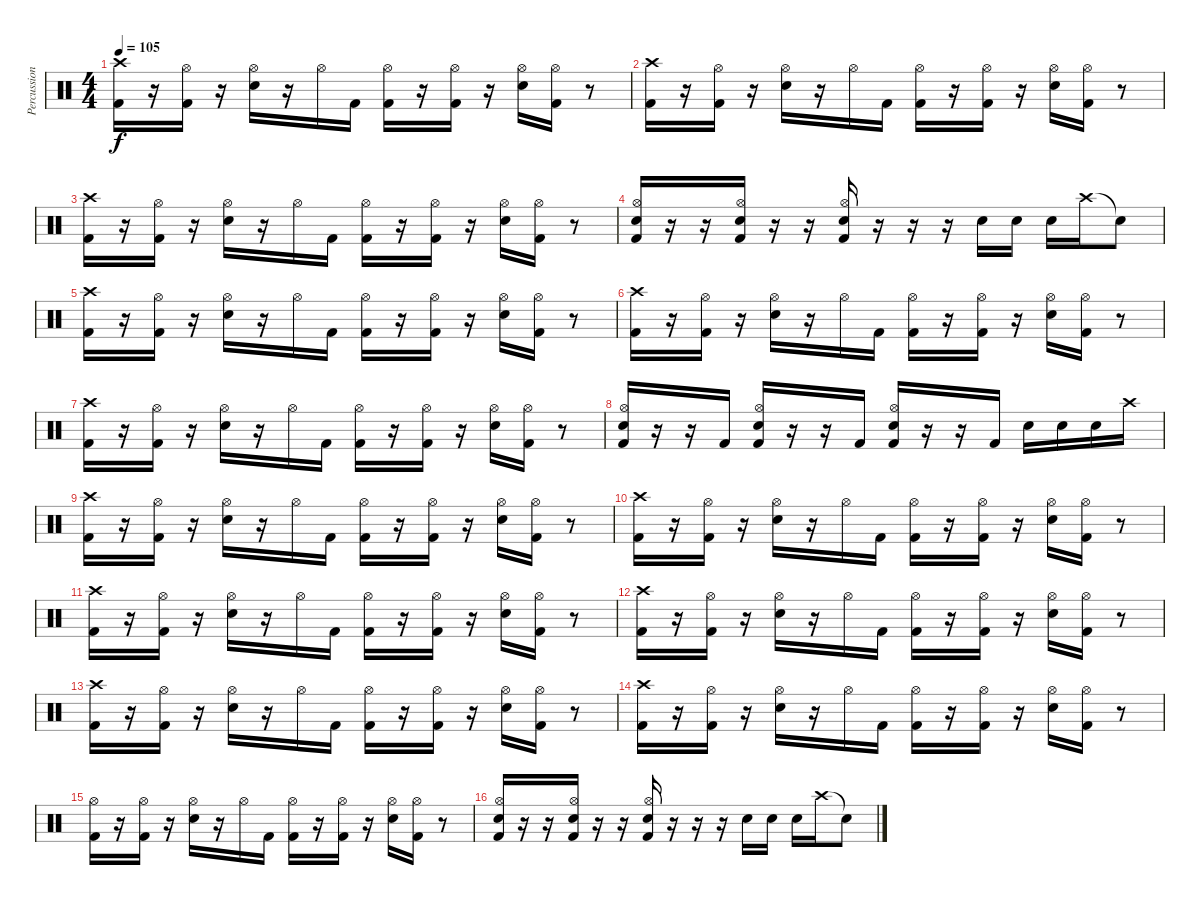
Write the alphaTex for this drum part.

\track ("Percussions" "Percussion") {instrument percussion}
\staff {score}
\articulation defaults
\ts (4 4)
\tempo 105
\clef neutral
\ks c
("Crash high (hit)" "Kick (hit) 2").16{dy f} r.16 ("Hi-Hat (open)" "Kick (hit) 2").16 r.16 ("Hi-Hat (open)" "Snare (hit) 2").16 r.16 "Hi-Hat (open)".16 "Kick (hit) 2".16 ("Kick (hit) 2" "Hi-Hat (open)").16 r.16 ("Kick (hit) 2" "Hi-Hat (open)").16 r.16 ("Hi-Hat (open)" "Snare (hit) 2").16 ("Kick (hit) 2" "Hi-Hat (open)").16 r.8 |
("Crash high (hit)" "Kick (hit) 2").16 r.16 ("Hi-Hat (open)" "Kick (hit) 2").16 r.16 ("Hi-Hat (open)" "Snare (hit) 2").16 r.16 "Hi-Hat (open)".16 "Kick (hit) 2".16 ("Kick (hit) 2" "Hi-Hat (open)").16 r.16 ("Kick (hit) 2" "Hi-Hat (open)").16 r.16 ("Hi-Hat (open)" "Snare (hit) 2").16 ("Kick (hit) 2" "Hi-Hat (open)").16 r.8 |
("Crash high (hit)" "Kick (hit) 2").16 r.16 ("Hi-Hat (open)" "Kick (hit) 2").16 r.16 ("Hi-Hat (open)" "Snare (hit) 2").16 r.16 "Hi-Hat (open)".16 "Kick (hit) 2".16 ("Kick (hit) 2" "Hi-Hat (open)").16 r.16 ("Kick (hit) 2" "Hi-Hat (open)").16 r.16 ("Hi-Hat (open)" "Snare (hit) 2").16 ("Kick (hit) 2" "Hi-Hat (open)").16 r.8 |
("Kick (hit) 2" "Snare (hit) 2" "Hi-Hat (open)").16 r.16 r.16 ("Kick (hit) 2" "Snare (hit) 2" "Hi-Hat (open)").16 r.16 r.16 ("Kick (hit) 2" "Snare (hit) 2" "Hi-Hat (open)").16 r.16 r.16 r.16 "Snare (hit) 2".16 "Snare (hit) 2".16 "Snare (hit) 2".16 "Crash high (hit)".16 "Snare (hit)"{t}.8 |
("Crash high (hit)" "Kick (hit) 2").16 r.16 ("Hi-Hat (open)" "Kick (hit) 2").16 r.16 ("Hi-Hat (open)" "Snare (hit) 2").16 r.16 "Hi-Hat (open)".16 "Kick (hit) 2".16 ("Kick (hit) 2" "Hi-Hat (open)").16 r.16 ("Kick (hit) 2" "Hi-Hat (open)").16 r.16 ("Hi-Hat (open)" "Snare (hit) 2").16 ("Kick (hit) 2" "Hi-Hat (open)").16 r.8 |
("Crash high (hit)" "Kick (hit) 2").16 r.16 ("Hi-Hat (open)" "Kick (hit) 2").16 r.16 ("Hi-Hat (open)" "Snare (hit) 2").16 r.16 "Hi-Hat (open)".16 "Kick (hit) 2".16 ("Kick (hit) 2" "Hi-Hat (open)").16 r.16 ("Kick (hit) 2" "Hi-Hat (open)").16 r.16 ("Hi-Hat (open)" "Snare (hit) 2").16 ("Kick (hit) 2" "Hi-Hat (open)").16 r.8 |
("Crash high (hit)" "Kick (hit) 2").16 r.16 ("Hi-Hat (open)" "Kick (hit) 2").16 r.16 ("Hi-Hat (open)" "Snare (hit) 2").16 r.16 "Hi-Hat (open)".16 "Kick (hit) 2".16 ("Kick (hit) 2" "Hi-Hat (open)").16 r.16 ("Kick (hit) 2" "Hi-Hat (open)").16 r.16 ("Hi-Hat (open)" "Snare (hit) 2").16 ("Kick (hit) 2" "Hi-Hat (open)").16 r.8 |
("Kick (hit) 2" "Snare (hit) 2" "Hi-Hat (open)").16 r.16 r.16 "Kick (hit) 2".16 ("Kick (hit) 2" "Snare (hit) 2" "Hi-Hat (open)").16 r.16 r.16 "Kick (hit) 2".16 ("Kick (hit) 2" "Snare (hit) 2" "Hi-Hat (open)").16 r.16 r.16 "Kick (hit) 2".16 "Snare (hit) 2".16 "Snare (hit) 2".16 "Snare (hit) 2".16 "Crash high (hit)".16 |
("Crash high (hit)" "Kick (hit) 2").16 r.16 ("Hi-Hat (open)" "Kick (hit) 2").16 r.16 ("Hi-Hat (open)" "Snare (hit) 2").16 r.16 "Hi-Hat (open)".16 "Kick (hit) 2".16 ("Kick (hit) 2" "Hi-Hat (open)").16 r.16 ("Kick (hit) 2" "Hi-Hat (open)").16 r.16 ("Hi-Hat (open)" "Snare (hit) 2").16 ("Kick (hit) 2" "Hi-Hat (open)").16 r.8 |
("Crash high (hit)" "Kick (hit) 2").16 r.16 ("Hi-Hat (open)" "Kick (hit) 2").16 r.16 ("Hi-Hat (open)" "Snare (hit) 2").16 r.16 "Hi-Hat (open)".16 "Kick (hit) 2".16 ("Kick (hit) 2" "Hi-Hat (open)").16 r.16 ("Kick (hit) 2" "Hi-Hat (open)").16 r.16 ("Hi-Hat (open)" "Snare (hit) 2").16 ("Kick (hit) 2" "Hi-Hat (open)").16 r.8 |
("Crash high (hit)" "Kick (hit) 2").16 r.16 ("Hi-Hat (open)" "Kick (hit) 2").16 r.16 ("Hi-Hat (open)" "Snare (hit) 2").16 r.16 "Hi-Hat (open)".16 "Kick (hit) 2".16 ("Kick (hit) 2" "Hi-Hat (open)").16 r.16 ("Kick (hit) 2" "Hi-Hat (open)").16 r.16 ("Hi-Hat (open)" "Snare (hit) 2").16 ("Kick (hit) 2" "Hi-Hat (open)").16 r.8 |
("Crash high (hit)" "Kick (hit) 2").16 r.16 ("Hi-Hat (open)" "Kick (hit) 2").16 r.16 ("Hi-Hat (open)" "Snare (hit) 2").16 r.16 "Hi-Hat (open)".16 "Kick (hit) 2".16 ("Kick (hit) 2" "Hi-Hat (open)").16 r.16 ("Kick (hit) 2" "Hi-Hat (open)").16 r.16 ("Hi-Hat (open)" "Snare (hit) 2").16 ("Kick (hit) 2" "Hi-Hat (open)").16 r.8 |
("Crash high (hit)" "Kick (hit) 2").16 r.16 ("Hi-Hat (open)" "Kick (hit) 2").16 r.16 ("Hi-Hat (open)" "Snare (hit) 2").16 r.16 "Hi-Hat (open)".16 "Kick (hit) 2".16 ("Kick (hit) 2" "Hi-Hat (open)").16 r.16 ("Kick (hit) 2" "Hi-Hat (open)").16 r.16 ("Hi-Hat (open)" "Snare (hit) 2").16 ("Kick (hit) 2" "Hi-Hat (open)").16 r.8 |
("Crash high (hit)" "Kick (hit) 2").16 r.16 ("Hi-Hat (open)" "Kick (hit) 2").16 r.16 ("Hi-Hat (open)" "Snare (hit) 2").16 r.16 "Hi-Hat (open)".16 "Kick (hit) 2".16 ("Kick (hit) 2" "Hi-Hat (open)").16 r.16 ("Kick (hit) 2" "Hi-Hat (open)").16 r.16 ("Hi-Hat (open)" "Snare (hit) 2").16 ("Kick (hit) 2" "Hi-Hat (open)").16 r.8 |
("Hi-Hat (open)" "Kick (hit) 2").16 r.16 ("Hi-Hat (open)" "Kick (hit) 2").16 r.16 ("Hi-Hat (open)" "Snare (hit) 2").16 r.16 "Hi-Hat (open)".16 "Kick (hit) 2".16 ("Kick (hit) 2" "Hi-Hat (open)").16 r.16 ("Kick (hit) 2" "Hi-Hat (open)").16 r.16 ("Hi-Hat (open)" "Snare (hit) 2").16 ("Kick (hit) 2" "Hi-Hat (open)").16 r.8 |
("Kick (hit) 2" "Snare (hit) 2" "Hi-Hat (open)").16 r.16 r.16 ("Kick (hit) 2" "Snare (hit) 2" "Hi-Hat (open)").16 r.16 r.16 ("Kick (hit) 2" "Snare (hit) 2" "Hi-Hat (open)").16 r.16 r.16 r.16 "Snare (hit) 2".16 "Snare (hit) 2".16 "Snare (hit) 2".16 "Crash high (hit)".16 "Snare (hit)"{t}.8
